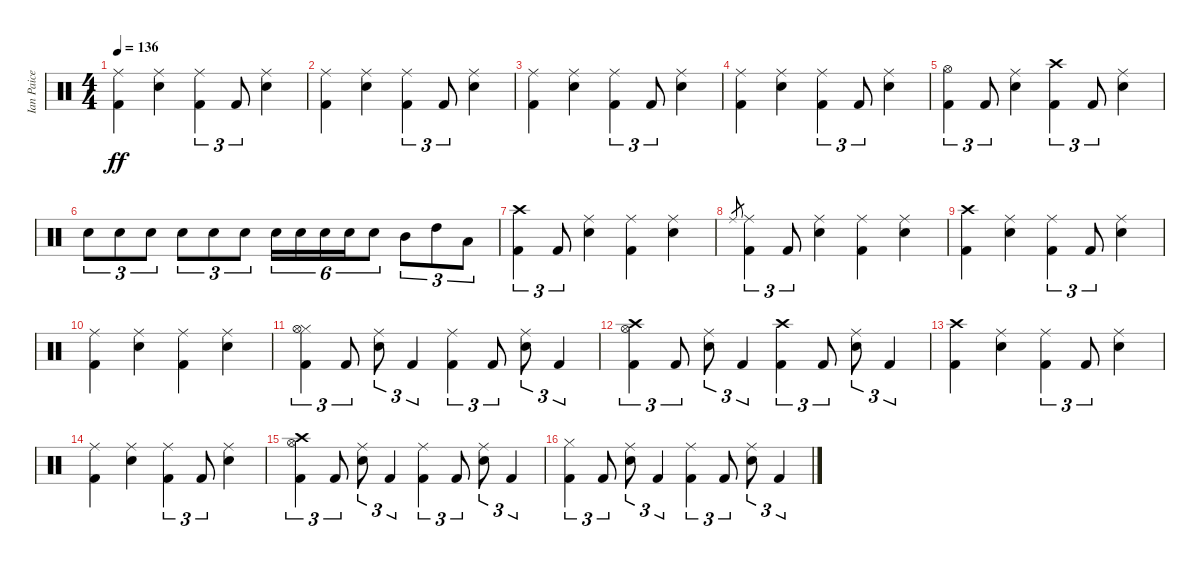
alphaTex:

\track ("Ian Paice" "Ian Paice") {instrument percussion}
\staff {score}
\articulation defaults
\ts (4 4)
\tempo 136
\clef neutral
\ks c
("Ride (middle)" "Kick (hit) 2").4{dy ff} ("Ride (middle)" "Electric Snare (hit)").4 ("Ride (middle)" "Kick (hit) 2").4{tu (3 2)} "Kick (hit) 2".8{tu (3 2)} ("Ride (middle)" "Electric Snare (hit)").4 |
("Ride (middle)" "Kick (hit) 2").4 ("Ride (middle)" "Electric Snare (hit)").4 ("Ride (middle)" "Kick (hit) 2").4{tu (3 2)} "Kick (hit) 2".8{tu (3 2)} ("Ride (middle)" "Electric Snare (hit)").4 |
("Ride (middle)" "Kick (hit) 2").4 ("Ride (middle)" "Electric Snare (hit)").4 ("Ride (middle)" "Kick (hit) 2").4{tu (3 2)} "Kick (hit) 2".8{tu (3 2)} ("Ride (middle)" "Electric Snare (hit)").4 |
("Ride (middle)" "Kick (hit) 2").4 ("Ride (middle)" "Electric Snare (hit)").4 ("Ride (middle)" "Kick (hit) 2").4{tu (3 2)} "Kick (hit) 2".8{tu (3 2)} ("Ride (middle)" "Electric Snare (hit)").4 |
("Hi-Hat (open)" "Kick (hit) 2").4{tu (3 2)} "Kick (hit) 2".8{tu (3 2)} ("Ride (middle)" "Electric Snare (hit)").4 ("Crash high (hit)" "Kick (hit) 2").4{tu (3 2)} "Kick (hit) 2".8{tu (3 2)} ("Ride (middle)" "Electric Snare (hit)").4 |
"Electric Snare (hit)".8{tu (3 2)} "Electric Snare (hit)".8{tu (3 2)} "Electric Snare (hit)".8{tu (3 2)} "Electric Snare (hit)".8{tu (3 2)} "Electric Snare (hit)".8{tu (3 2)} "Electric Snare (hit)".8{tu (3 2)} "Electric Snare (hit)".16{tu (6 4)} "Electric Snare (hit)".16{tu (6 4)} "Electric Snare (hit)".16{tu (6 4)} "Electric Snare (hit)".16{tu (6 4)} "Electric Snare (hit)".8{tu (6 4)} "Mid Tom (hit)".8{tu (3 2)} "High Tom (hit)".8{tu (3 2)} "Low Tom (hit)".8{tu (3 2)} |
("Crash high (hit)" "Kick (hit) 2").4{tu (3 2)} "Kick (hit) 2".8{tu (3 2)} ("Ride (middle)" "Electric Snare (hit)").4 ("Ride (middle)" "Kick (hit) 2").4 ("Ride (middle)" "Electric Snare (hit)").4 |
"Ride (middle)".8{gr} ("Ride (middle)" "Kick (hit) 2").4{tu (3 2)} "Kick (hit) 2".8{tu (3 2)} ("Ride (middle)" "Electric Snare (hit)").4 ("Ride (middle)" "Kick (hit) 2").4 ("Ride (middle)" "Electric Snare (hit)").4 |
("Crash high (hit)" "Kick (hit) 2").4 ("Ride (middle)" "Electric Snare (hit)").4 ("Ride (middle)" "Kick (hit) 2").4{tu (3 2)} "Kick (hit) 2".8{tu (3 2)} ("Ride (middle)" "Electric Snare (hit)").4 |
("Ride (middle)" "Kick (hit) 2").4 ("Ride (middle)" "Electric Snare (hit)").4 ("Ride (middle)" "Kick (hit) 2").4 ("Ride (middle)" "Electric Snare (hit)").4 |
("Hi-Hat (closed)" "Hi-Hat (open)" "Kick (hit) 2").4{tu (3 2)} "Kick (hit) 2".8{tu (3 2)} ("Ride (middle)" "Electric Snare (hit)").8{tu (3 2)} "Kick (hit) 2".4{tu (3 2)} ("Ride (middle)" "Kick (hit) 2").4{tu (3 2)} "Kick (hit) 2".8{tu (3 2)} ("Ride (middle)" "Electric Snare (hit)").8{tu (3 2)} "Kick (hit) 2".4{tu (3 2)} |
("Crash high (hit)" "Hi-Hat (open)" "Kick (hit) 2").4{tu (3 2)} "Kick (hit) 2".8{tu (3 2)} ("Ride (middle)" "Electric Snare (hit)").8{tu (3 2)} "Kick (hit) 2".4{tu (3 2)} ("Crash high (hit)" "Kick (hit) 2").4{tu (3 2)} "Kick (hit) 2".8{tu (3 2)} ("Ride (middle)" "Electric Snare (hit)").8{tu (3 2)} "Kick (hit) 2".4{tu (3 2)} |
("Crash high (hit)" "Kick (hit) 2").4 ("Ride (middle)" "Electric Snare (hit)").4 ("Ride (middle)" "Kick (hit) 2").4{tu (3 2)} "Kick (hit) 2".8{tu (3 2)} ("Ride (middle)" "Electric Snare (hit)").4 |
("Ride (middle)" "Kick (hit) 2").4 ("Ride (middle)" "Electric Snare (hit)").4 ("Ride (middle)" "Kick (hit) 2").4{tu (3 2)} "Kick (hit) 2".8{tu (3 2)} ("Ride (middle)" "Electric Snare (hit)").4 |
("Crash high (hit)" "Hi-Hat (open)" "Kick (hit) 2").4{tu (3 2)} "Kick (hit) 2".8{tu (3 2)} ("Ride (middle)" "Electric Snare (hit)").8{tu (3 2)} "Kick (hit) 2".4{tu (3 2)} ("Ride (middle)" "Kick (hit) 2").4{tu (3 2)} "Kick (hit) 2".8{tu (3 2)} ("Ride (middle)" "Electric Snare (hit)").8{tu (3 2)} "Kick (hit) 2".4{tu (3 2)} |
("Hi-Hat (closed)" "Kick (hit) 2").4{tu (3 2)} "Kick (hit) 2".8{tu (3 2)} ("Ride (middle)" "Electric Snare (hit)").8{tu (3 2)} "Kick (hit) 2".4{tu (3 2)} ("Ride (middle)" "Kick (hit) 2").4{tu (3 2)} "Kick (hit) 2".8{tu (3 2)} ("Ride (middle)" "Electric Snare (hit)").8{tu (3 2)} "Kick (hit) 2".4{tu (3 2)}
